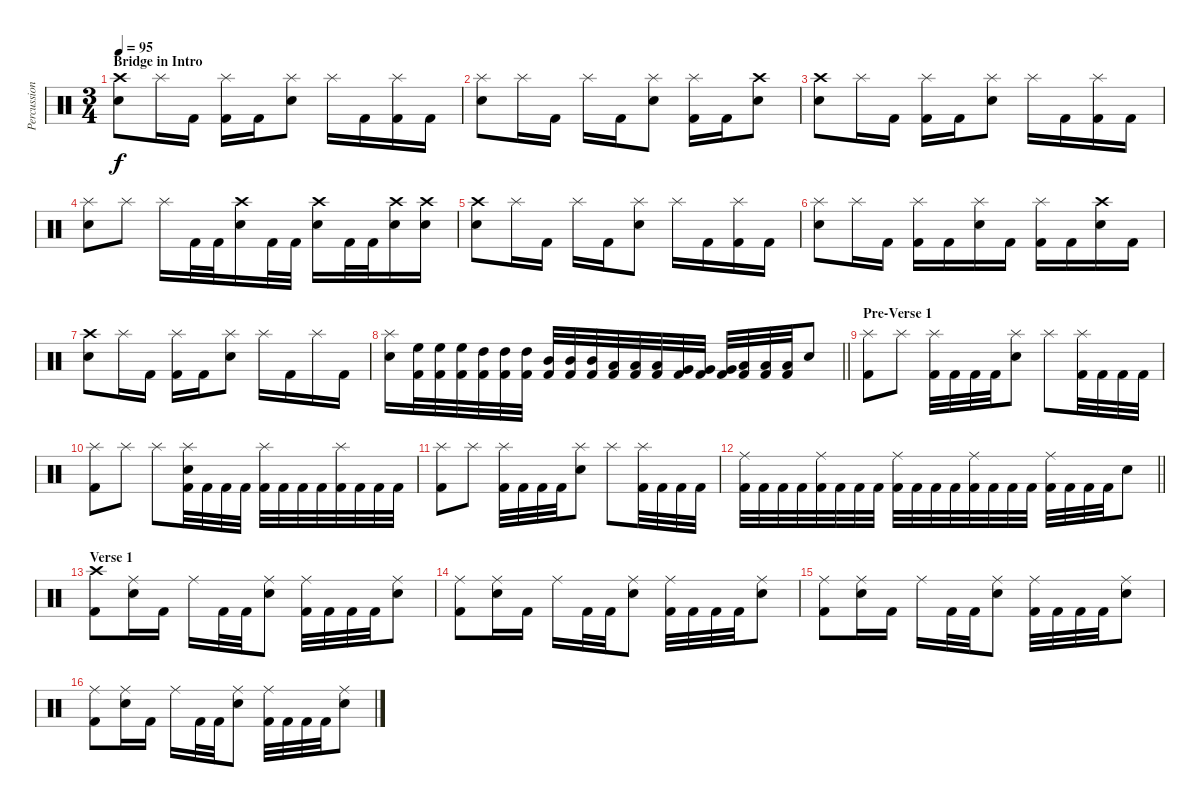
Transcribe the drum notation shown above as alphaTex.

\track ("Percussion Mike" "Percussion") {instrument percussion}
\staff {score}
\articulation defaults
\ts (3 4)
\section ("" "Bridge in Intro")
\tempo 95
\clef neutral
\ks c
("Crash high (hit)" "Snare (hit) 2").8{dy f} "Splash (hit)".16 "Kick (hit) 2".16 ("Splash (hit)" "Kick (hit) 2").16 "Kick (hit) 2".16 ("Splash (hit)" "Snare (hit) 2").8 "Splash (hit)".16 "Kick (hit) 2".16 ("Splash (hit)" "Kick (hit) 2").16 "Kick (hit) 2".16 |
("Splash (hit)" "Snare (hit) 2").8 "Splash (hit)".16 "Kick (hit) 2".16 "Splash (hit)".16 "Kick (hit) 2".16 ("Splash (hit)" "Snare (hit) 2").8 ("Splash (hit)" "Kick (hit) 2").16 "Kick (hit) 2".16 ("Crash high (hit)" "Snare (hit) 2").8 |
("Crash high (hit)" "Snare (hit) 2").8 "Splash (hit)".16 "Kick (hit) 2".16 ("Splash (hit)" "Kick (hit) 2").16 "Kick (hit) 2".16 ("Splash (hit)" "Snare (hit) 2").8 "Splash (hit)".16 "Kick (hit) 2".16 ("Splash (hit)" "Kick (hit) 2").16 "Kick (hit) 2".16 |
("Splash (hit)" "Snare (hit) 2").8 "Splash (hit)".8 "Splash (hit)".16 "Kick (hit) 2".32 "Kick (hit) 2".32 ("Crash high (hit)" "Snare (hit) 2").16 "Kick (hit) 2".32 "Kick (hit) 2".32 ("Crash high (hit)" "Snare (hit) 2").16 "Kick (hit) 2".32 "Kick (hit) 2".32 ("Crash high (hit)" "Snare (hit) 2").16 ("Crash high (hit)" "Snare (hit) 2").16 |
("Crash high (hit)" "Snare (hit) 2").8 "Splash (hit)".16 "Kick (hit) 2".16 "Splash (hit)".16 "Kick (hit) 2".16 ("Splash (hit)" "Snare (hit) 2").8 "Splash (hit)".16 "Kick (hit) 2".16 ("Splash (hit)" "Kick (hit) 2").16 "Kick (hit) 2".16 |
("Splash (hit)" "Snare (hit) 2").8 "Splash (hit)".16 "Kick (hit) 2".16 ("Splash (hit)" "Kick (hit) 2").16 "Kick (hit) 2".16 ("Splash (hit)" "Snare (hit) 2").16 "Kick (hit) 2".16 ("Splash (hit)" "Kick (hit) 2").16 "Kick (hit) 2".16 ("Crash high (hit)" "Snare (hit) 2").16 "Kick (hit) 2".16 |
("Crash high (hit)" "Snare (hit) 2").8 "Splash (hit)".16 "Kick (hit) 2".16 ("Splash (hit)" "Kick (hit) 2").16 "Kick (hit) 2".16 ("Splash (hit)" "Snare (hit) 2").8 "Splash (hit)".16 "Kick (hit) 2".16 "Splash (hit)".16 "Kick (hit) 2".16 |
\barLineRight lightlight
("Splash (hit)" "Snare (hit) 2").16 ("High Floor Tom (hit)" "Kick (hit) 2").32 ("High Floor Tom (hit)" "Kick (hit) 2").32 ("High Floor Tom (hit)" "Kick (hit) 2").32 ("High Tom (hit)" "Kick (hit) 2").32 ("High Tom (hit)" "Kick (hit) 2").32 ("High Tom (hit)" "Kick (hit) 2").32 ("Mid Tom (hit)" "Kick (hit) 2").32 ("Mid Tom (hit)" "Kick (hit) 2").32 ("Mid Tom (hit)" "Kick (hit) 2").32 ("Low Tom (hit)" "Kick (hit) 2").32 ("Low Tom (hit)" "Kick (hit) 2").32 ("Low Tom (hit)" "Kick (hit) 2").32 ("Very Low Tom (hit)" "Kick (hit) 2").32 ("Very Low Tom (hit)" "Kick (hit) 2").32 ("Very Low Tom (hit)" "Kick (hit) 2").32 ("Low Floor Tom (hit)" "Kick (hit) 2").32 ("Low Floor Tom (hit)" "Kick (hit) 2").32 ("Low Floor Tom (hit)" "Kick (hit) 2").32 "Snare (hit) 2".8 |
\section ("" "Pre-Verse 1")
("Splash (hit)" "Kick (hit) 2").8 "Splash (hit)".8 ("Splash (hit)" "Kick (hit) 2").32 "Kick (hit) 2".32 "Kick (hit) 2".32 "Kick (hit) 2".32 ("Splash (hit)" "Snare (hit) 2").8 "Splash (hit)".8 ("Splash (hit)" "Kick (hit) 2").32 "Kick (hit) 2".32 "Kick (hit) 2".32 "Kick (hit) 2".32 |
("Splash (hit)" "Kick (hit) 2").8 "Splash (hit)".8 "Splash (hit)".8 ("Splash (hit)" "Snare (hit) 2" "Kick (hit) 2").32 "Kick (hit) 2".32 "Kick (hit) 2".32 "Kick (hit) 2".32 ("Splash (hit)" "Kick (hit) 2").32 "Kick (hit) 2".32 "Kick (hit) 2".32 "Kick (hit) 2".32 ("Splash (hit)" "Kick (hit) 2").32 "Kick (hit) 2".32 "Kick (hit) 2".32 "Kick (hit) 2".32 |
("Splash (hit)" "Kick (hit) 2").8 "Splash (hit)".8 ("Splash (hit)" "Kick (hit) 2").32 "Kick (hit) 2".32 "Kick (hit) 2".32 "Kick (hit) 2".32 ("Splash (hit)" "Snare (hit) 2").8 "Splash (hit)".8 ("Splash (hit)" "Kick (hit) 2").32 "Kick (hit) 2".32 "Kick (hit) 2".32 "Kick (hit) 2".32 |
\barLineRight lightlight
("Ride (middle)" "Kick (hit) 2").32 "Kick (hit) 2".32 "Kick (hit) 2".32 "Kick (hit) 2".32 ("Ride (middle)" "Kick (hit) 2").32 "Kick (hit) 2".32 "Kick (hit) 2".32 "Kick (hit) 2".32 ("Ride (middle)" "Kick (hit) 2").32 "Kick (hit) 2".32 "Kick (hit) 2".32 "Kick (hit) 2".32 ("Ride (middle)" "Kick (hit) 2").32 "Kick (hit) 2".32 "Kick (hit) 2".32 "Kick (hit) 2".32 ("Ride (middle)" "Kick (hit) 2").32 "Kick (hit) 2".32 "Kick (hit) 2".32 "Kick (hit) 2".32 "Snare (hit) 2".8 |
\section ("" "Verse 1")
("Crash high (hit)" "Kick (hit) 2").8 ("Ride (middle)" "Snare (hit) 2").16 "Kick (hit) 2".16 "Ride (middle)".16 "Kick (hit) 2".32 "Kick (hit) 2".32 ("Ride (middle)" "Snare (hit) 2").8 ("Ride (middle)" "Kick (hit) 2").32 "Kick (hit) 2".32 "Kick (hit) 2".32 "Kick (hit) 2".32 ("Ride (middle)" "Snare (hit) 2").8 |
("Ride (middle)" "Kick (hit) 2").8 ("Ride (middle)" "Snare (hit) 2").16 "Kick (hit) 2".16 "Ride (middle)".16 "Kick (hit) 2".32 "Kick (hit) 2".32 ("Ride (middle)" "Snare (hit) 2").8 ("Ride (middle)" "Kick (hit) 2").32 "Kick (hit) 2".32 "Kick (hit) 2".32 "Kick (hit) 2".32 ("Ride (middle)" "Snare (hit) 2").8 |
("Ride (middle)" "Kick (hit) 2").8 ("Ride (middle)" "Snare (hit) 2").16 "Kick (hit) 2".16 "Ride (middle)".16 "Kick (hit) 2".32 "Kick (hit) 2".32 ("Ride (middle)" "Snare (hit) 2").8 ("Ride (middle)" "Kick (hit) 2").32 "Kick (hit) 2".32 "Kick (hit) 2".32 "Kick (hit) 2".32 ("Ride (middle)" "Snare (hit) 2").8 |
("Ride (middle)" "Kick (hit) 2").8 ("Ride (middle)" "Snare (hit) 2").16 "Kick (hit) 2".16 "Ride (middle)".16 "Kick (hit) 2".32 "Kick (hit) 2".32 ("Ride (middle)" "Snare (hit) 2").8 ("Ride (middle)" "Kick (hit) 2").32 "Kick (hit) 2".32 "Kick (hit) 2".32 "Kick (hit) 2".32 ("Ride (middle)" "Snare (hit) 2").8
